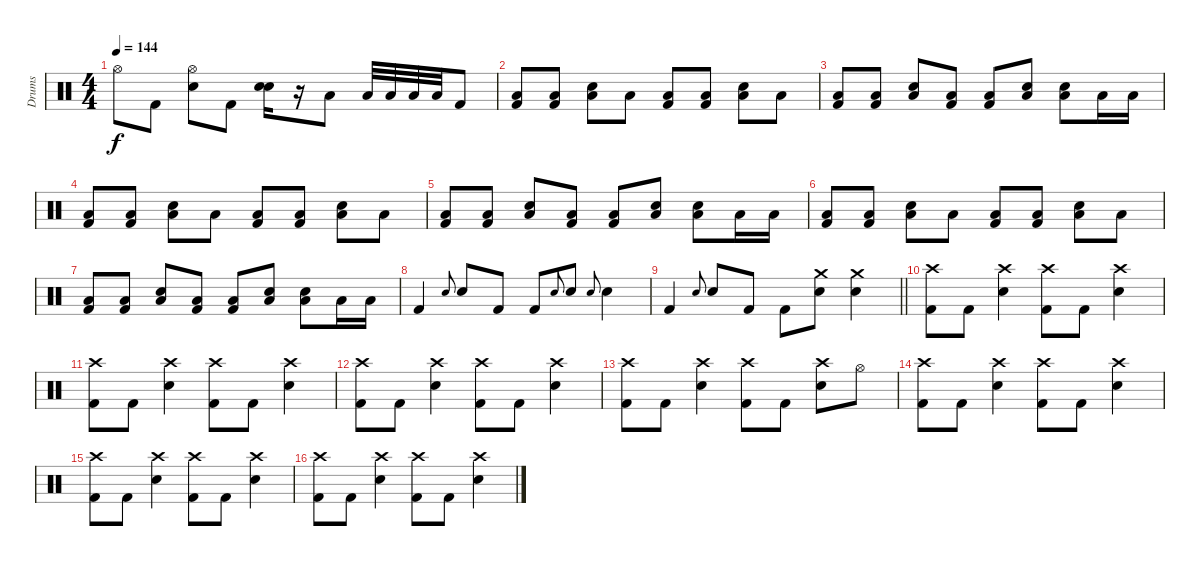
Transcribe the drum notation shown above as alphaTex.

\track ("Drums" "Drums") {instrument percussion}
\staff {score}
\articulation defaults
\ts (4 4)
\tempo 144
\clef neutral
\ks c "Hi-Hat (open)".8{dy f} "Kick (hit) 2".8
("Hi-Hat (open)" "Electric Snare (hit)").8 "Kick (hit) 2".8 ("Electric Snare (hit)" "Electric Snare (hit)").16 r.16 "Low Tom (hit)".8 "Low Tom (hit)".32 "Low Tom (hit)".32 "Low Tom (hit)".32 "Low Tom (hit)".32 "Kick (hit) 2".8 |
("Low Floor Tom (hit)" "Kick (hit) 2").8 ("Low Floor Tom (hit)" "Kick (hit) 2").8 ("Electric Snare (hit)" "Low Floor Tom (hit)").8 "Low Floor Tom (hit)".8 ("Low Floor Tom (hit)" "Kick (hit) 2").8 ("Low Floor Tom (hit)" "Kick (hit) 2").8 ("Electric Snare (hit)" "Low Floor Tom (hit)").8 "Low Floor Tom (hit)".8 |
("Low Floor Tom (hit)" "Kick (hit) 2").8 ("Low Floor Tom (hit)" "Kick (hit) 2").8 ("Electric Snare (hit)" "Low Floor Tom (hit)").8 ("Low Floor Tom (hit)" "Kick (hit) 2").8 ("Low Floor Tom (hit)" "Kick (hit) 2").8 ("Electric Snare (hit)" "Low Floor Tom (hit)").8 ("Electric Snare (hit)" "Low Floor Tom (hit)").8 "Low Floor Tom (hit)".16 "Low Floor Tom (hit)".16 |
("Low Floor Tom (hit)" "Kick (hit) 2").8 ("Low Floor Tom (hit)" "Kick (hit) 2").8 ("Electric Snare (hit)" "Low Floor Tom (hit)").8 "Low Floor Tom (hit)".8 ("Low Floor Tom (hit)" "Kick (hit) 2").8 ("Low Floor Tom (hit)" "Kick (hit) 2").8 ("Electric Snare (hit)" "Low Floor Tom (hit)").8 "Low Floor Tom (hit)".8 |
("Low Floor Tom (hit)" "Kick (hit) 2").8 ("Low Floor Tom (hit)" "Kick (hit) 2").8 ("Electric Snare (hit)" "Low Floor Tom (hit)").8 ("Low Floor Tom (hit)" "Kick (hit) 2").8 ("Low Floor Tom (hit)" "Kick (hit) 2").8 ("Electric Snare (hit)" "Low Floor Tom (hit)").8 ("Electric Snare (hit)" "Low Floor Tom (hit)").8 "Low Floor Tom (hit)".16 "Low Floor Tom (hit)".16 |
("Low Floor Tom (hit)" "Kick (hit) 2").8 ("Low Floor Tom (hit)" "Kick (hit) 2").8 ("Electric Snare (hit)" "Low Floor Tom (hit)").8 "Low Floor Tom (hit)".8 ("Low Floor Tom (hit)" "Kick (hit) 2").8 ("Low Floor Tom (hit)" "Kick (hit) 2").8 ("Electric Snare (hit)" "Low Floor Tom (hit)").8 "Low Floor Tom (hit)".8 |
("Low Floor Tom (hit)" "Kick (hit) 2").8 ("Low Floor Tom (hit)" "Kick (hit) 2").8 ("Electric Snare (hit)" "Low Floor Tom (hit)").8 ("Low Floor Tom (hit)" "Kick (hit) 2").8 ("Low Floor Tom (hit)" "Kick (hit) 2").8 ("Electric Snare (hit)" "Low Floor Tom (hit)").8 ("Electric Snare (hit)" "Low Floor Tom (hit)").8 "Low Floor Tom (hit)".16 "Low Floor Tom (hit)".16 |
"Kick (hit) 2".4 "Electric Snare (hit)".8{gr onbeat} "Electric Snare (hit)".8 "Kick (hit) 2".8 "Kick (hit) 2".8 "Electric Snare (hit)".8{gr onbeat} "Electric Snare (hit)".8 "Electric Snare (hit)".8{gr onbeat} "Electric Snare (hit)".4 |
\barLineRight lightlight "Kick (hit) 2".4 "Electric Snare (hit)".8{gr onbeat} "Electric Snare (hit)".8 "Kick (hit) 2".8 "Kick (hit) 2".8
("Crash medium (hit)" "Electric Snare (hit)").8 ("Crash medium (hit)" "Electric Snare (hit)").4 |
("Crash high (hit)" "Kick (hit) 2").8 "Kick (hit) 2".8 ("Crash high (hit)" "Electric Snare (hit)").4 ("Crash high (hit)" "Kick (hit) 2").8 "Kick (hit) 2".8 ("Crash high (hit)" "Electric Snare (hit)").4 |
("Crash high (hit)" "Kick (hit) 2").8 "Kick (hit) 2".8 ("Crash high (hit)" "Electric Snare (hit)").4 ("Crash high (hit)" "Kick (hit) 2").8 "Kick (hit) 2".8 ("Crash high (hit)" "Electric Snare (hit)").4 |
("Crash high (hit)" "Kick (hit) 2").8 "Kick (hit) 2".8 ("Crash high (hit)" "Electric Snare (hit)").4 ("Crash high (hit)" "Kick (hit) 2").8 "Kick (hit) 2".8 ("Crash high (hit)" "Electric Snare (hit)").4 |
("Crash high (hit)" "Kick (hit) 2").8 "Kick (hit) 2".8 ("Crash high (hit)" "Electric Snare (hit)").4 ("Crash high (hit)" "Kick (hit) 2").8 "Kick (hit) 2".8 ("Crash high (hit)" "Electric Snare (hit)").8 "Hi-Hat (open)".8 |
("Crash high (hit)" "Kick (hit) 2").8 "Kick (hit) 2".8 ("Crash high (hit)" "Electric Snare (hit)").4 ("Crash high (hit)" "Kick (hit) 2").8 "Kick (hit) 2".8 ("Crash high (hit)" "Electric Snare (hit)").4 |
("Crash high (hit)" "Kick (hit) 2").8 "Kick (hit) 2".8 ("Crash high (hit)" "Electric Snare (hit)").4 ("Crash high (hit)" "Kick (hit) 2").8 "Kick (hit) 2".8 ("Crash high (hit)" "Electric Snare (hit)").4 |
("Crash high (hit)" "Kick (hit) 2").8 "Kick (hit) 2".8 ("Crash high (hit)" "Electric Snare (hit)").4 ("Crash high (hit)" "Kick (hit) 2").8 "Kick (hit) 2".8 ("Crash high (hit)" "Electric Snare (hit)").4
